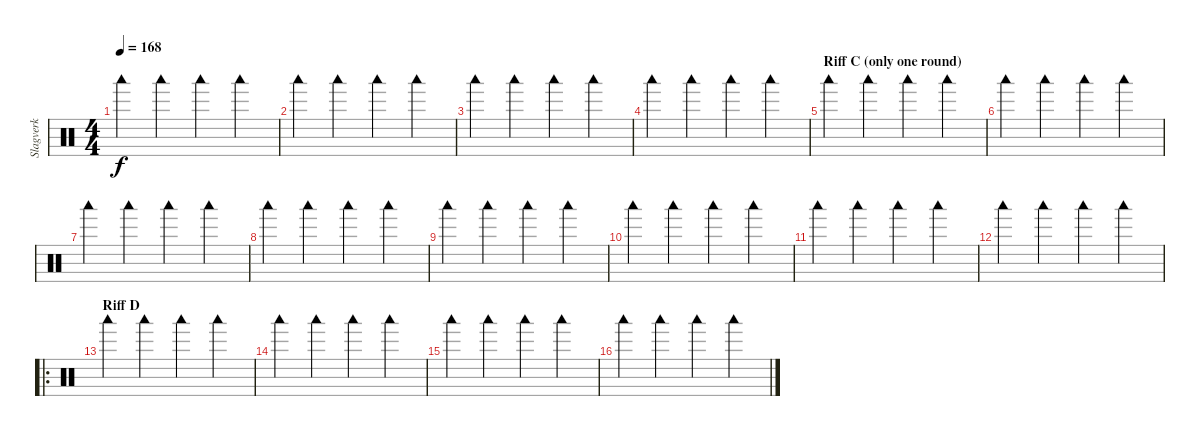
\track ("Slagverk" "Slagverk") {instrument percussion}
\staff {score}
\articulation defaults
\ts (4 4)
\tempo 168
\clef neutral
\ks c "Woodblock low (hit)".4{dy f} "Woodblock low (hit)".4 "Woodblock low (hit)".4 "Woodblock low (hit)".4
|
"Woodblock low (hit)".4 "Woodblock low (hit)".4 "Woodblock low (hit)".4 "Woodblock low (hit)".4 |
"Woodblock low (hit)".4 "Woodblock low (hit)".4 "Woodblock low (hit)".4 "Woodblock low (hit)".4 |
"Woodblock low (hit)".4 "Woodblock low (hit)".4 "Woodblock low (hit)".4 "Woodblock low (hit)".4 |
\section ("" "Riff C (only one round)")
"Woodblock low (hit)".4 "Woodblock low (hit)".4 "Woodblock low (hit)".4 "Woodblock low (hit)".4 |
"Woodblock low (hit)".4 "Woodblock low (hit)".4 "Woodblock low (hit)".4 "Woodblock low (hit)".4 |
"Woodblock low (hit)".4 "Woodblock low (hit)".4 "Woodblock low (hit)".4 "Woodblock low (hit)".4 |
"Woodblock low (hit)".4 "Woodblock low (hit)".4 "Woodblock low (hit)".4 "Woodblock low (hit)".4 |
"Woodblock low (hit)".4 "Woodblock low (hit)".4 "Woodblock low (hit)".4 "Woodblock low (hit)".4 |
"Woodblock low (hit)".4 "Woodblock low (hit)".4 "Woodblock low (hit)".4 "Woodblock low (hit)".4 |
"Woodblock low (hit)".4 "Woodblock low (hit)".4 "Woodblock low (hit)".4 "Woodblock low (hit)".4 |
"Woodblock low (hit)".4 "Woodblock low (hit)".4 "Woodblock low (hit)".4 "Woodblock low (hit)".4 |
\ro
\section ("" "Riff D")
"Woodblock low (hit)".4 "Woodblock low (hit)".4 "Woodblock low (hit)".4 "Woodblock low (hit)".4 |
"Woodblock low (hit)".4 "Woodblock low (hit)".4 "Woodblock low (hit)".4 "Woodblock low (hit)".4 |
"Woodblock low (hit)".4 "Woodblock low (hit)".4 "Woodblock low (hit)".4 "Woodblock low (hit)".4 |
"Woodblock low (hit)".4 "Woodblock low (hit)".4 "Woodblock low (hit)".4 "Woodblock low (hit)".4
